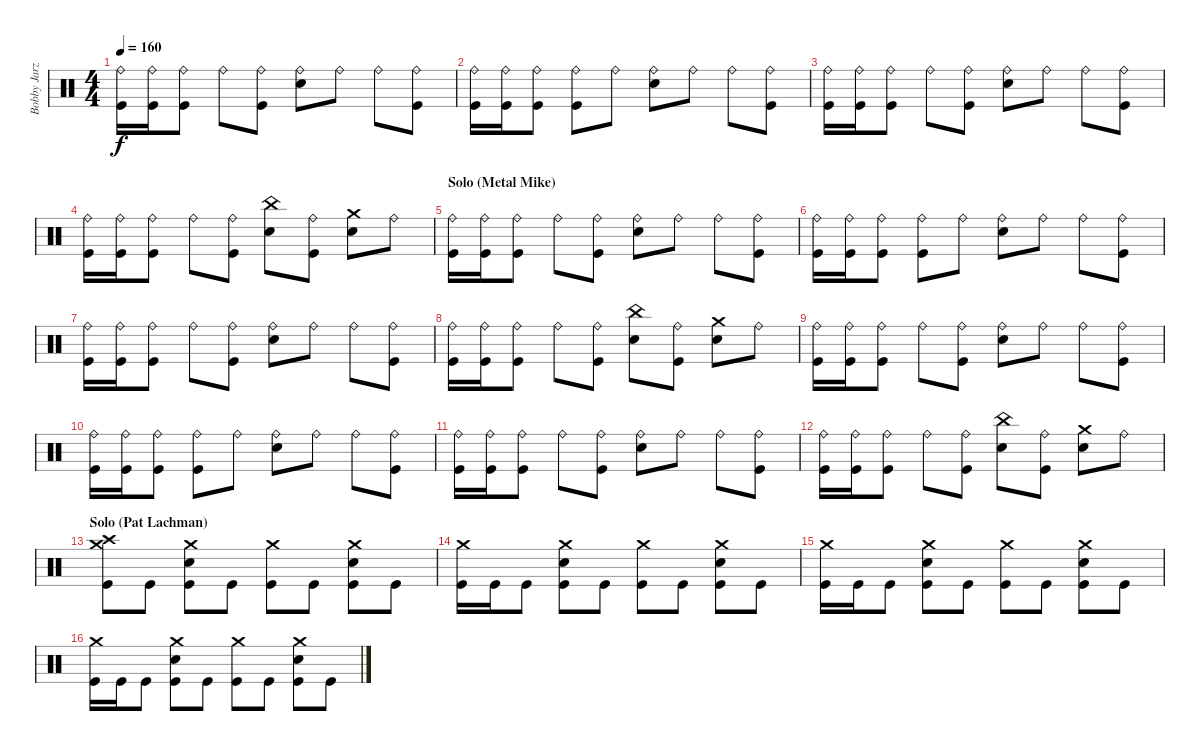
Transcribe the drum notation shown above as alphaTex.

\track ("Bobby Jarzombek" "Bobby Jarz") {instrument percussion}
\staff {score}
\articulation defaults
\ts (4 4)
\tempo 160
\clef neutral
\ks c
("Ride (bell)" "Kick (hit)").16{dy f} ("Ride (bell)" "Kick (hit)").16 ("Ride (bell)" "Kick (hit)").8 "Ride (bell)".8 ("Ride (bell)" "Kick (hit)").8 ("Ride (bell)" "Electric Snare (hit)").8 "Ride (bell)".8 "Ride (bell)".8 ("Ride (bell)" "Kick (hit)").8 |
("Ride (bell)" "Kick (hit)").16 ("Ride (bell)" "Kick (hit)").16 ("Ride (bell)" "Kick (hit)").8 ("Ride (bell)" "Kick (hit)").8 "Ride (bell)".8 ("Ride (bell)" "Electric Snare (hit)").8 "Ride (bell)".8 "Ride (bell)".8 ("Ride (bell)" "Kick (hit)").8 |
("Ride (bell)" "Kick (hit)").16 ("Ride (bell)" "Kick (hit)").16 ("Ride (bell)" "Kick (hit)").8 "Ride (bell)".8 ("Ride (bell)" "Kick (hit)").8 ("Ride (bell)" "Electric Snare (hit)").8 "Ride (bell)".8 "Ride (bell)".8 ("Ride (bell)" "Kick (hit)").8 |
("Ride (bell)" "Kick (hit)").16 ("Ride (bell)" "Kick (hit)").16 ("Ride (bell)" "Kick (hit)").8 "Ride (bell)".8 ("Ride (bell)" "Kick (hit)").8 ("China (hit)" "Electric Snare (hit)").8 ("Ride (bell)" "Kick (hit)").8 ("Crash medium (hit)" "Electric Snare (hit)").8 "Ride (bell)".8 |
\section ("" "Solo (Metal Mike)")
("Ride (bell)" "Kick (hit)").16 ("Ride (bell)" "Kick (hit)").16 ("Ride (bell)" "Kick (hit)").8 "Ride (bell)".8 ("Ride (bell)" "Kick (hit)").8 ("Ride (bell)" "Electric Snare (hit)").8 "Ride (bell)".8 "Ride (bell)".8 ("Ride (bell)" "Kick (hit)").8 |
("Ride (bell)" "Kick (hit)").16 ("Ride (bell)" "Kick (hit)").16 ("Ride (bell)" "Kick (hit)").8 ("Ride (bell)" "Kick (hit)").8 "Ride (bell)".8 ("Ride (bell)" "Electric Snare (hit)").8 "Ride (bell)".8 "Ride (bell)".8 ("Ride (bell)" "Kick (hit)").8 |
("Ride (bell)" "Kick (hit)").16 ("Ride (bell)" "Kick (hit)").16 ("Ride (bell)" "Kick (hit)").8 "Ride (bell)".8 ("Ride (bell)" "Kick (hit)").8 ("Ride (bell)" "Electric Snare (hit)").8 "Ride (bell)".8 "Ride (bell)".8 ("Ride (bell)" "Kick (hit)").8 |
("Ride (bell)" "Kick (hit)").16 ("Ride (bell)" "Kick (hit)").16 ("Ride (bell)" "Kick (hit)").8 "Ride (bell)".8 ("Ride (bell)" "Kick (hit)").8 ("China (hit)" "Electric Snare (hit)").8 ("Ride (bell)" "Kick (hit)").8 ("Crash medium (hit)" "Electric Snare (hit)").8 "Ride (bell)".8 |
("Ride (bell)" "Kick (hit)").16 ("Ride (bell)" "Kick (hit)").16 ("Ride (bell)" "Kick (hit)").8 "Ride (bell)".8 ("Ride (bell)" "Kick (hit)").8 ("Ride (bell)" "Electric Snare (hit)").8 "Ride (bell)".8 "Ride (bell)".8 ("Ride (bell)" "Kick (hit)").8 |
("Ride (bell)" "Kick (hit)").16 ("Ride (bell)" "Kick (hit)").16 ("Ride (bell)" "Kick (hit)").8 ("Ride (bell)" "Kick (hit)").8 "Ride (bell)".8 ("Ride (bell)" "Electric Snare (hit)").8 "Ride (bell)".8 "Ride (bell)".8 ("Ride (bell)" "Kick (hit)").8 |
("Ride (bell)" "Kick (hit)").16 ("Ride (bell)" "Kick (hit)").16 ("Ride (bell)" "Kick (hit)").8 "Ride (bell)".8 ("Ride (bell)" "Kick (hit)").8 ("Ride (bell)" "Electric Snare (hit)").8 "Ride (bell)".8 "Ride (bell)".8 ("Ride (bell)" "Kick (hit)").8 |
("Ride (bell)" "Kick (hit)").16 ("Ride (bell)" "Kick (hit)").16 ("Ride (bell)" "Kick (hit)").8 "Ride (bell)".8 ("Ride (bell)" "Kick (hit)").8 ("China (hit)" "Electric Snare (hit)").8 ("Ride (bell)" "Kick (hit)").8 ("Crash medium (hit)" "Electric Snare (hit)").8 "Ride (bell)".8 |
\section ("" "Solo (Pat Lachman)")
("Crash high (hit)" "Crash medium (hit)" "Kick (hit)").8 "Kick (hit)".8 ("Crash medium (hit)" "Electric Snare (hit)" "Kick (hit)").8 "Kick (hit)".8 ("Crash medium (hit)" "Kick (hit)").8 "Kick (hit)".8 ("Crash medium (hit)" "Electric Snare (hit)" "Kick (hit)").8 "Kick (hit)".8 |
("Crash medium (hit)" "Kick (hit)").16 "Kick (hit)".16 "Kick (hit)".8 ("Crash medium (hit)" "Electric Snare (hit)" "Kick (hit)").8 "Kick (hit)".8 ("Crash medium (hit)" "Kick (hit)").8 "Kick (hit)".8 ("Crash medium (hit)" "Electric Snare (hit)" "Kick (hit)").8 "Kick (hit)".8 |
("Crash medium (hit)" "Kick (hit)").16 "Kick (hit)".16 "Kick (hit)".8 ("Crash medium (hit)" "Electric Snare (hit)" "Kick (hit)").8 "Kick (hit)".8 ("Crash medium (hit)" "Kick (hit)").8 "Kick (hit)".8 ("Crash medium (hit)" "Electric Snare (hit)" "Kick (hit)").8 "Kick (hit)".8 |
("Crash medium (hit)" "Kick (hit)").16 "Kick (hit)".16 "Kick (hit)".8 ("Crash medium (hit)" "Electric Snare (hit)" "Kick (hit)").8 "Kick (hit)".8 ("Crash medium (hit)" "Kick (hit)").8 "Kick (hit)".8 ("Crash medium (hit)" "Electric Snare (hit)" "Kick (hit)").8 "Kick (hit)".8
